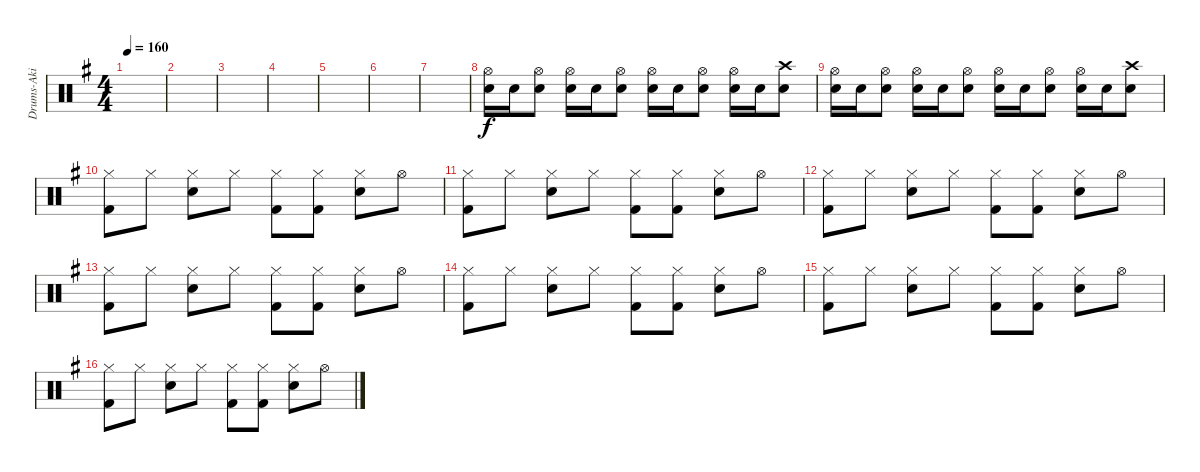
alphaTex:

\track ("Drums-Aki" "Drums-Aki") {instrument percussion}
\staff {score}
\articulation defaults
\ts (4 4)
\tempo 160
\clef neutral
\ks g
|
|
|
|
|
|
|
("Hi-Hat (open)" "Electric Snare (hit)").16 "Electric Snare (hit)".16 ("Hi-Hat (open)" "Electric Snare (hit)").8 ("Hi-Hat (open)" "Electric Snare (hit)").16 "Electric Snare (hit)".16 ("Hi-Hat (open)" "Electric Snare (hit)").8 ("Hi-Hat (open)" "Electric Snare (hit)").16 "Electric Snare (hit)".16 ("Hi-Hat (open)" "Electric Snare (hit)").8 ("Hi-Hat (open)" "Electric Snare (hit)").16 "Electric Snare (hit)".16 ("Crash high (hit)" "Electric Snare (hit)").8 |
("Hi-Hat (open)" "Electric Snare (hit)").16 "Electric Snare (hit)".16 ("Hi-Hat (open)" "Electric Snare (hit)").8 ("Hi-Hat (open)" "Electric Snare (hit)").16 "Electric Snare (hit)".16 ("Hi-Hat (open)" "Electric Snare (hit)").8 ("Hi-Hat (open)" "Electric Snare (hit)").16 "Electric Snare (hit)".16 ("Hi-Hat (open)" "Electric Snare (hit)").8 ("Hi-Hat (open)" "Electric Snare (hit)").16 "Electric Snare (hit)".16 ("Crash high (hit)" "Electric Snare (hit)").8 |
("Hi-Hat (closed)" "Kick (hit) 2").8 "Hi-Hat (closed)".8 ("Hi-Hat (closed)" "Electric Snare (hit)").8 "Hi-Hat (closed)".8 ("Hi-Hat (closed)" "Kick (hit) 2").8 ("Hi-Hat (closed)" "Kick (hit) 2").8 ("Hi-Hat (closed)" "Electric Snare (hit)").8 "Hi-Hat (open)".8 |
("Hi-Hat (closed)" "Kick (hit) 2").8 "Hi-Hat (closed)".8 ("Hi-Hat (closed)" "Electric Snare (hit)").8 "Hi-Hat (closed)".8 ("Hi-Hat (closed)" "Kick (hit) 2").8 ("Hi-Hat (closed)" "Kick (hit) 2").8 ("Hi-Hat (closed)" "Electric Snare (hit)").8 "Hi-Hat (open)".8 |
("Hi-Hat (closed)" "Kick (hit) 2").8 "Hi-Hat (closed)".8 ("Hi-Hat (closed)" "Electric Snare (hit)").8 "Hi-Hat (closed)".8 ("Hi-Hat (closed)" "Kick (hit) 2").8 ("Hi-Hat (closed)" "Kick (hit) 2").8 ("Hi-Hat (closed)" "Electric Snare (hit)").8 "Hi-Hat (open)".8 |
("Hi-Hat (closed)" "Kick (hit) 2").8 "Hi-Hat (closed)".8 ("Hi-Hat (closed)" "Electric Snare (hit)").8 "Hi-Hat (closed)".8 ("Hi-Hat (closed)" "Kick (hit) 2").8 ("Hi-Hat (closed)" "Kick (hit) 2").8 ("Hi-Hat (closed)" "Electric Snare (hit)").8 "Hi-Hat (open)".8 |
("Hi-Hat (closed)" "Kick (hit) 2").8 "Hi-Hat (closed)".8 ("Hi-Hat (closed)" "Electric Snare (hit)").8 "Hi-Hat (closed)".8 ("Hi-Hat (closed)" "Kick (hit) 2").8 ("Hi-Hat (closed)" "Kick (hit) 2").8 ("Hi-Hat (closed)" "Electric Snare (hit)").8 "Hi-Hat (open)".8 |
("Hi-Hat (closed)" "Kick (hit) 2").8 "Hi-Hat (closed)".8 ("Hi-Hat (closed)" "Electric Snare (hit)").8 "Hi-Hat (closed)".8 ("Hi-Hat (closed)" "Kick (hit) 2").8 ("Hi-Hat (closed)" "Kick (hit) 2").8 ("Hi-Hat (closed)" "Electric Snare (hit)").8 "Hi-Hat (open)".8 |
("Hi-Hat (closed)" "Kick (hit) 2").8 "Hi-Hat (closed)".8 ("Hi-Hat (closed)" "Electric Snare (hit)").8 "Hi-Hat (closed)".8 ("Hi-Hat (closed)" "Kick (hit) 2").8 ("Hi-Hat (closed)" "Kick (hit) 2").8 ("Hi-Hat (closed)" "Electric Snare (hit)").8 "Hi-Hat (open)".8
